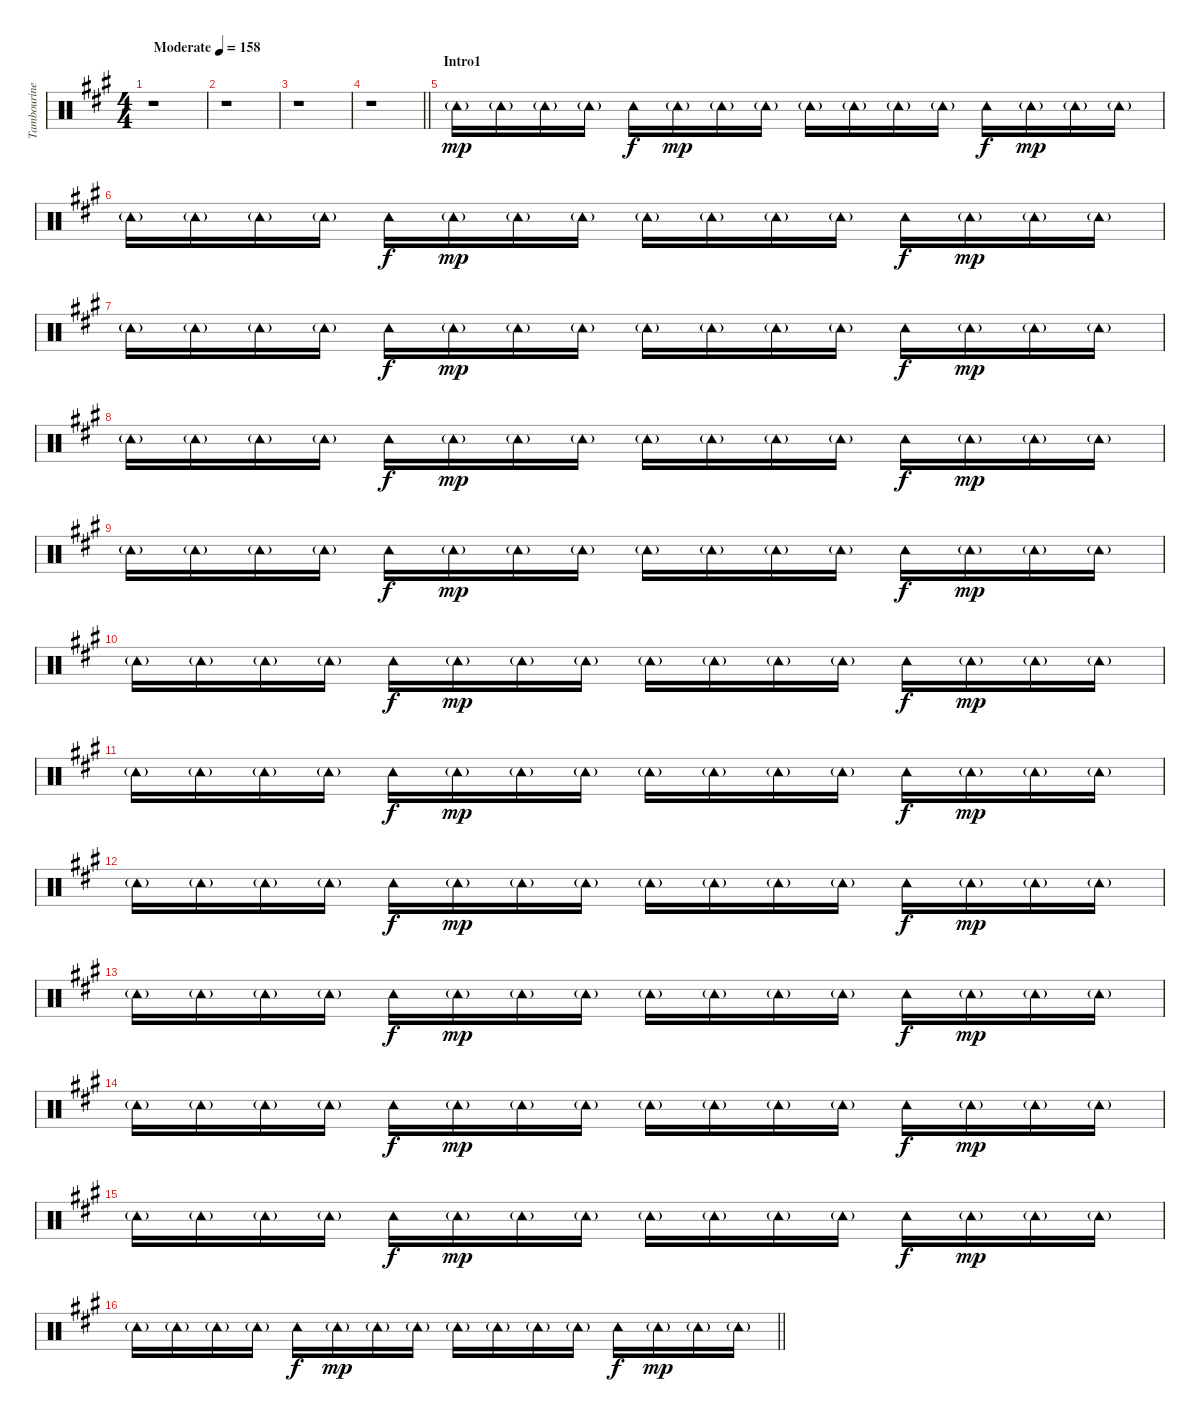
\track ("Tambourine" "Tambourine") {instrument percussion}
\staff {score}
\articulation defaults
\ts (4 4)
\tempo (158 "Moderate")
\clef neutral
\ks a
r.1{dy mp} |
r.1 |
r.1 |
\barLineRight lightlight
r.1 |
\section ("" "Intro1")
"Tambourine (hit)"{g}.16 "Tambourine (hit)"{g}.16 "Tambourine (hit)"{g}.16 "Tambourine (hit)"{g}.16 "Tambourine (hit)".16{dy f} "Tambourine (hit)"{g}.16{dy mp} "Tambourine (hit)"{g}.16 "Tambourine (hit)"{g}.16 "Tambourine (hit)"{g}.16 "Tambourine (hit)"{g}.16 "Tambourine (hit)"{g}.16 "Tambourine (hit)"{g}.16 "Tambourine (hit)".16{dy f} "Tambourine (hit)"{g}.16{dy mp} "Tambourine (hit)"{g}.16 "Tambourine (hit)"{g}.16 |
"Tambourine (hit)"{g}.16 "Tambourine (hit)"{g}.16 "Tambourine (hit)"{g}.16 "Tambourine (hit)"{g}.16 "Tambourine (hit)".16{dy f} "Tambourine (hit)"{g}.16{dy mp} "Tambourine (hit)"{g}.16 "Tambourine (hit)"{g}.16 "Tambourine (hit)"{g}.16 "Tambourine (hit)"{g}.16 "Tambourine (hit)"{g}.16 "Tambourine (hit)"{g}.16 "Tambourine (hit)".16{dy f} "Tambourine (hit)"{g}.16{dy mp} "Tambourine (hit)"{g}.16 "Tambourine (hit)"{g}.16 |
"Tambourine (hit)"{g}.16 "Tambourine (hit)"{g}.16 "Tambourine (hit)"{g}.16 "Tambourine (hit)"{g}.16 "Tambourine (hit)".16{dy f} "Tambourine (hit)"{g}.16{dy mp} "Tambourine (hit)"{g}.16 "Tambourine (hit)"{g}.16 "Tambourine (hit)"{g}.16 "Tambourine (hit)"{g}.16 "Tambourine (hit)"{g}.16 "Tambourine (hit)"{g}.16 "Tambourine (hit)".16{dy f} "Tambourine (hit)"{g}.16{dy mp} "Tambourine (hit)"{g}.16 "Tambourine (hit)"{g}.16 |
"Tambourine (hit)"{g}.16 "Tambourine (hit)"{g}.16 "Tambourine (hit)"{g}.16 "Tambourine (hit)"{g}.16 "Tambourine (hit)".16{dy f} "Tambourine (hit)"{g}.16{dy mp} "Tambourine (hit)"{g}.16 "Tambourine (hit)"{g}.16 "Tambourine (hit)"{g}.16 "Tambourine (hit)"{g}.16 "Tambourine (hit)"{g}.16 "Tambourine (hit)"{g}.16 "Tambourine (hit)".16{dy f} "Tambourine (hit)"{g}.16{dy mp} "Tambourine (hit)"{g}.16 "Tambourine (hit)"{g}.16 |
"Tambourine (hit)"{g}.16 "Tambourine (hit)"{g}.16 "Tambourine (hit)"{g}.16 "Tambourine (hit)"{g}.16 "Tambourine (hit)".16{dy f} "Tambourine (hit)"{g}.16{dy mp} "Tambourine (hit)"{g}.16 "Tambourine (hit)"{g}.16 "Tambourine (hit)"{g}.16 "Tambourine (hit)"{g}.16 "Tambourine (hit)"{g}.16 "Tambourine (hit)"{g}.16 "Tambourine (hit)".16{dy f} "Tambourine (hit)"{g}.16{dy mp} "Tambourine (hit)"{g}.16 "Tambourine (hit)"{g}.16 |
"Tambourine (hit)"{g}.16 "Tambourine (hit)"{g}.16 "Tambourine (hit)"{g}.16 "Tambourine (hit)"{g}.16 "Tambourine (hit)".16{dy f} "Tambourine (hit)"{g}.16{dy mp} "Tambourine (hit)"{g}.16 "Tambourine (hit)"{g}.16 "Tambourine (hit)"{g}.16 "Tambourine (hit)"{g}.16 "Tambourine (hit)"{g}.16 "Tambourine (hit)"{g}.16 "Tambourine (hit)".16{dy f} "Tambourine (hit)"{g}.16{dy mp} "Tambourine (hit)"{g}.16 "Tambourine (hit)"{g}.16 |
"Tambourine (hit)"{g}.16 "Tambourine (hit)"{g}.16 "Tambourine (hit)"{g}.16 "Tambourine (hit)"{g}.16 "Tambourine (hit)".16{dy f} "Tambourine (hit)"{g}.16{dy mp} "Tambourine (hit)"{g}.16 "Tambourine (hit)"{g}.16 "Tambourine (hit)"{g}.16 "Tambourine (hit)"{g}.16 "Tambourine (hit)"{g}.16 "Tambourine (hit)"{g}.16 "Tambourine (hit)".16{dy f} "Tambourine (hit)"{g}.16{dy mp} "Tambourine (hit)"{g}.16 "Tambourine (hit)"{g}.16 |
"Tambourine (hit)"{g}.16 "Tambourine (hit)"{g}.16 "Tambourine (hit)"{g}.16 "Tambourine (hit)"{g}.16 "Tambourine (hit)".16{dy f} "Tambourine (hit)"{g}.16{dy mp} "Tambourine (hit)"{g}.16 "Tambourine (hit)"{g}.16 "Tambourine (hit)"{g}.16 "Tambourine (hit)"{g}.16 "Tambourine (hit)"{g}.16 "Tambourine (hit)"{g}.16 "Tambourine (hit)".16{dy f} "Tambourine (hit)"{g}.16{dy mp} "Tambourine (hit)"{g}.16 "Tambourine (hit)"{g}.16 |
"Tambourine (hit)"{g}.16 "Tambourine (hit)"{g}.16 "Tambourine (hit)"{g}.16 "Tambourine (hit)"{g}.16 "Tambourine (hit)".16{dy f} "Tambourine (hit)"{g}.16{dy mp} "Tambourine (hit)"{g}.16 "Tambourine (hit)"{g}.16 "Tambourine (hit)"{g}.16 "Tambourine (hit)"{g}.16 "Tambourine (hit)"{g}.16 "Tambourine (hit)"{g}.16 "Tambourine (hit)".16{dy f} "Tambourine (hit)"{g}.16{dy mp} "Tambourine (hit)"{g}.16 "Tambourine (hit)"{g}.16 |
"Tambourine (hit)"{g}.16 "Tambourine (hit)"{g}.16 "Tambourine (hit)"{g}.16 "Tambourine (hit)"{g}.16 "Tambourine (hit)".16{dy f} "Tambourine (hit)"{g}.16{dy mp} "Tambourine (hit)"{g}.16 "Tambourine (hit)"{g}.16 "Tambourine (hit)"{g}.16 "Tambourine (hit)"{g}.16 "Tambourine (hit)"{g}.16 "Tambourine (hit)"{g}.16 "Tambourine (hit)".16{dy f} "Tambourine (hit)"{g}.16{dy mp} "Tambourine (hit)"{g}.16 "Tambourine (hit)"{g}.16 |
"Tambourine (hit)"{g}.16 "Tambourine (hit)"{g}.16 "Tambourine (hit)"{g}.16 "Tambourine (hit)"{g}.16 "Tambourine (hit)".16{dy f} "Tambourine (hit)"{g}.16{dy mp} "Tambourine (hit)"{g}.16 "Tambourine (hit)"{g}.16 "Tambourine (hit)"{g}.16 "Tambourine (hit)"{g}.16 "Tambourine (hit)"{g}.16 "Tambourine (hit)"{g}.16 "Tambourine (hit)".16{dy f} "Tambourine (hit)"{g}.16{dy mp} "Tambourine (hit)"{g}.16 "Tambourine (hit)"{g}.16 |
\barLineRight lightlight "Tambourine (hit)"{g}.16 "Tambourine (hit)"{g}.16 "Tambourine (hit)"{g}.16 "Tambourine (hit)"{g}.16 "Tambourine (hit)".16{dy f} "Tambourine (hit)"{g}.16{dy mp} "Tambourine (hit)"{g}.16 "Tambourine (hit)"{g}.16 "Tambourine (hit)"{g}.16 "Tambourine (hit)"{g}.16 "Tambourine (hit)"{g}.16 "Tambourine (hit)"{g}.16 "Tambourine (hit)".16{dy f} "Tambourine (hit)"{g}.16{dy mp} "Tambourine (hit)"{g}.16 "Tambourine (hit)"{g}.16
